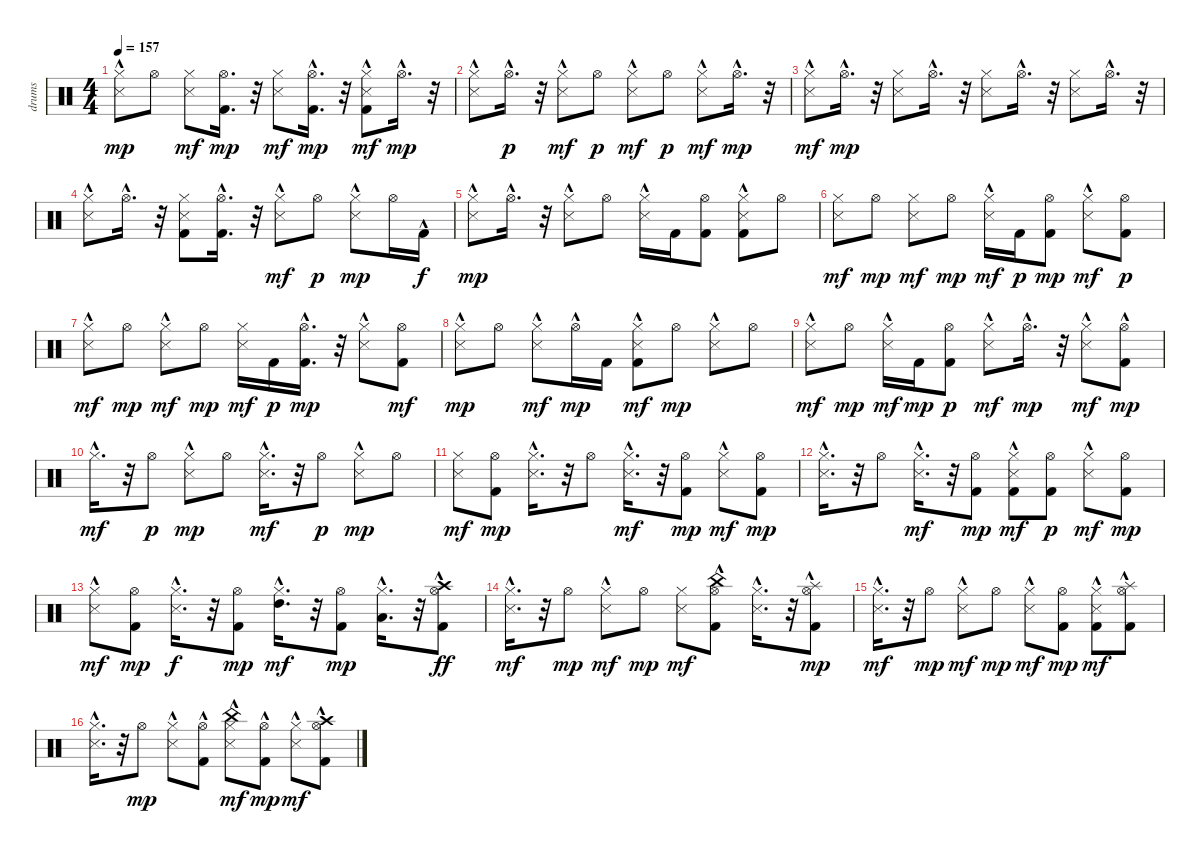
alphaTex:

\track ("drums   " "drums   ") {instrument percussion}
\staff {score}
\articulation defaults
\ts (4 4)
\tempo 157
\clef neutral
\ks c
("Snare (side stick) 3" "Hi-Hat (closed)"{hac}).8{dy mp} "Hi-Hat (open)".8 ("Snare (side stick) 3" "Hi-Hat (closed)").8{dy mf} ("Kick (hit) 2" "Hi-Hat (open)").16{d dy mp} r.32 ("Snare (side stick) 3" "Hi-Hat (closed)").8{dy mf} ("Kick (hit) 2" "Hi-Hat (open)"{hac}).16{d dy mp} r.32 ("Kick (hit) 2" "Snare (side stick) 3"{hac} "Hi-Hat (closed)"{hac}).8{dy mf} "Hi-Hat (open)"{hac}.16{d dy mp} r.32 |
("Snare (side stick) 3" "Hi-Hat (closed)"{hac}).8 "Hi-Hat (open)"{hac}.16{d dy p} r.32 ("Snare (side stick) 3" "Hi-Hat (closed)"{hac}).8{dy mf} "Hi-Hat (open)".8{dy p} ("Snare (side stick) 3" "Hi-Hat (closed)"{hac}).8{dy mf} "Hi-Hat (open)".8{dy p} ("Snare (side stick) 3"{hac} "Hi-Hat (closed)"{hac}).8{dy mf} "Hi-Hat (open)"{hac}.16{d dy mp} r.32 |
("Snare (side stick) 3"{hac} "Hi-Hat (closed)"{hac}).8{dy mf} "Hi-Hat (open)"{hac}.16{d dy mp} r.32 ("Snare (side stick) 3" "Hi-Hat (closed)").8 "Hi-Hat (open)"{hac}.16{d} r.32 ("Snare (side stick) 3" "Hi-Hat (closed)").8 "Hi-Hat (open)"{hac}.16{d} r.32 ("Snare (side stick) 3" "Hi-Hat (closed)").8 "Hi-Hat (open)"{hac}.16{d} r.32 |
("Snare (side stick) 3" "Hi-Hat (closed)"{hac}).8 "Hi-Hat (open)"{hac}.16{d} r.32 ("Kick (hit) 2" "Snare (side stick) 3" "Hi-Hat (closed)").8 ("Kick (hit) 2"{hac} "Hi-Hat (open)").16{d} r.32 ("Snare (side stick) 3" "Hi-Hat (closed)"{hac}).8{dy mf} "Hi-Hat (open)".8{dy p} ("Snare (side stick) 3" "Hi-Hat (closed)"{hac}).8{dy mp} "Hi-Hat (open)".16 "Kick (hit) 2"{hac}.16{dy f} |
("Snare (side stick) 3" "Hi-Hat (closed)"{hac}).8{dy mp} "Hi-Hat (open)"{hac}.16{d} r.32 ("Snare (side stick) 3" "Hi-Hat (closed)"{hac}).8 "Hi-Hat (open)".8 ("Snare (side stick) 3"{hac} "Hi-Hat (closed)"{hac}).16 "Kick (hit) 2".16 ("Kick (hit) 2" "Hi-Hat (open)").8 ("Kick (hit) 2" "Snare (side stick) 3"{hac} "Hi-Hat (closed)").8 "Hi-Hat (open)".8 |
("Snare (side stick) 3" "Hi-Hat (closed)").8{dy mf} "Hi-Hat (open)".8{dy mp} ("Snare (side stick) 3" "Hi-Hat (closed)").8{dy mf} "Hi-Hat (open)".8{dy mp} ("Snare (side stick) 3"{hac} "Hi-Hat (closed)").16{dy mf} "Kick (hit) 2".16{dy p} ("Kick (hit) 2" "Hi-Hat (open)").8{dy mp} ("Snare (side stick) 3"{hac} "Hi-Hat (closed)").8{dy mf} ("Kick (hit) 2" "Hi-Hat (open)").8{dy p} |
("Snare (side stick) 3" "Hi-Hat (closed)"{hac}).8{dy mf} "Hi-Hat (open)".8{dy mp} ("Snare (side stick) 3" "Hi-Hat (closed)"{hac}).8{dy mf} "Hi-Hat (open)".8{dy mp} ("Snare (side stick) 3" "Hi-Hat (closed)").16{dy mf} "Kick (hit) 2".16{dy p} ("Kick (hit) 2" "Hi-Hat (open)"{hac}).16{d dy mp} r.32 ("Snare (side stick) 3"{hac} "Hi-Hat (closed)").8 ("Kick (hit) 2" "Hi-Hat (open)").8{dy mf} |
("Snare (side stick) 3" "Hi-Hat (closed)"{hac}).8{dy mp} "Hi-Hat (open)".8 ("Snare (side stick) 3" "Hi-Hat (closed)"{hac}).8{dy mf} "Hi-Hat (open)"{hac}.16{dy mp} "Kick (hit) 2".16 ("Kick (hit) 2" "Snare (side stick) 3" "Hi-Hat (closed)"{hac}).8{dy mf} "Hi-Hat (open)".8{dy mp} ("Snare (side stick) 3" "Hi-Hat (closed)"{hac}).8 "Hi-Hat (open)".8 |
("Snare (side stick) 3" "Hi-Hat (closed)"{hac}).8{dy mf} "Hi-Hat (open)".8{dy mp} ("Snare (side stick) 3" "Hi-Hat (closed)"{hac}).16{dy mf} "Kick (hit) 2".16{dy mp} ("Kick (hit) 2" "Hi-Hat (open)").8{dy p} ("Snare (side stick) 3" "Hi-Hat (closed)"{hac}).8{dy mf} "Hi-Hat (open)"{hac}.16{d dy mp} r.32 ("Snare (side stick) 3" "Hi-Hat (closed)"{hac}).8{dy mf} ("Kick (hit) 2"{hac} "Hi-Hat (open)").8{dy mp} |
"Hi-Hat (closed)"{hac}.16{d dy mf} r.32 "Hi-Hat (open)".8{dy p} ("Hi-Hat (closed)" "Snare (side stick) 3"{hac}).8{dy mp} "Hi-Hat (open)".8 ("Hi-Hat (closed)"{hac} "Snare (side stick) 3"{hac}).16{d dy mf} r.32 "Hi-Hat (open)".8{dy p} ("Hi-Hat (closed)" "Snare (side stick) 3"{hac}).8{dy mp} "Hi-Hat (open)".8 |
("Hi-Hat (closed)" "Snare (side stick) 3").8{dy mf} ("Kick (hit) 2" "Hi-Hat (open)").8{dy mp} ("Hi-Hat (closed)"{hac} "Snare (side stick) 3"{hac}).16{d} r.32 "Hi-Hat (open)".8 ("Snare (side stick) 3"{hac} "Hi-Hat (closed)"{hac}).16{d dy mf} r.32 ("Kick (hit) 2" "Hi-Hat (open)").8{dy mp} ("Snare (side stick) 3"{hac} "Hi-Hat (closed)").8{dy mf} ("Kick (hit) 2" "Hi-Hat (open)").8{dy mp} |
("Snare (side stick) 3"{hac} "Hi-Hat (closed)"{hac}).16{d} r.32 "Hi-Hat (open)".8 ("Snare (side stick) 3"{hac} "Hi-Hat (closed)"{hac}).16{d dy mf} r.32 ("Kick (hit) 2" "Hi-Hat (open)").8{dy mp} ("Snare (side stick) 3" "Kick (hit) 2" "Hi-Hat (closed)"{hac}).8{dy mf} ("Kick (hit) 2" "Hi-Hat (open)").8{dy p} ("Snare (side stick) 3" "Hi-Hat (closed)"{hac}).8{dy mf} ("Kick (hit) 2" "Hi-Hat (open)").8{dy mp} |
("Snare (side stick) 3"{hac} "Hi-Hat (closed)").8{dy mf} ("Kick (hit) 2" "Hi-Hat (open)").8{dy mp} ("Snare (side stick) 3" "Hi-Hat (closed)"{hac}).16{d dy f} r.32 ("Kick (hit) 2" "Hi-Hat (open)").8{dy mp} ("Hi-Hat (closed)"{hac} "High Tom (hit)"{hac}).16{d dy mf} r.32 ("Kick (hit) 2" "Hi-Hat (open)").8{dy mp} ("Hi-Hat (closed)"{hac} "Low Tom (hit)").16{d} r.32 ("Kick (hit) 2" "Hi-Hat (open)" "Crash high (hit)"{hac}).8{dy ff} |
("Snare (side stick) 3"{hac} "Hi-Hat (closed)"{hac}).16{d dy mf} r.32 "Hi-Hat (open)".8{dy mp} ("Snare (side stick) 3"{hac} "Hi-Hat (closed)").8{dy mf} "Hi-Hat (open)".8{dy mp} ("Snare (side stick) 3" "Hi-Hat (closed)").8{dy mf} ("Kick (hit) 2" "Hi-Hat (open)" "China (hit)"{hac}).8 ("Snare (side stick) 3"{hac} "Hi-Hat (closed)"{hac}).16{d} r.32 ("Kick (hit) 2" "Hi-Hat (open)" "Splash (hit)"{hac}).8{dy mp} |
("Snare (side stick) 3"{hac} "Hi-Hat (closed)"{hac}).16{d dy mf} r.32 "Hi-Hat (open)".8{dy mp} ("Snare (side stick) 3"{hac} "Hi-Hat (closed)").8{dy mf} "Hi-Hat (open)".8{dy mp} ("Snare (side stick) 3"{hac} "Hi-Hat (closed)").8{dy mf} ("Kick (hit) 2" "Hi-Hat (open)").8{dy mp} ("Kick (hit) 2" "Snare (side stick) 3"{hac} "Hi-Hat (closed)").8{dy mf} ("Kick (hit) 2"{hac} "Hi-Hat (open)" "Splash (hit)"{hac}).8 |
("Snare (side stick) 3"{hac} "Hi-Hat (closed)"{hac}).16{d} r.32 "Hi-Hat (open)".8{dy mp} ("Snare (side stick) 3"{hac} "Hi-Hat (closed)").8 ("Kick (hit) 2"{hac} "Hi-Hat (open)").8 ("Snare (side stick) 3"{hac} "Hi-Hat (closed)"{hac} "China (hit)").8{dy mf} ("Kick (hit) 2"{hac} "Hi-Hat (open)").8{dy mp} ("Snare (side stick) 3"{hac} "Hi-Hat (closed)").8{dy mf} ("Kick (hit) 2"{hac} "Hi-Hat (open)" "Crash high (hit)").8
